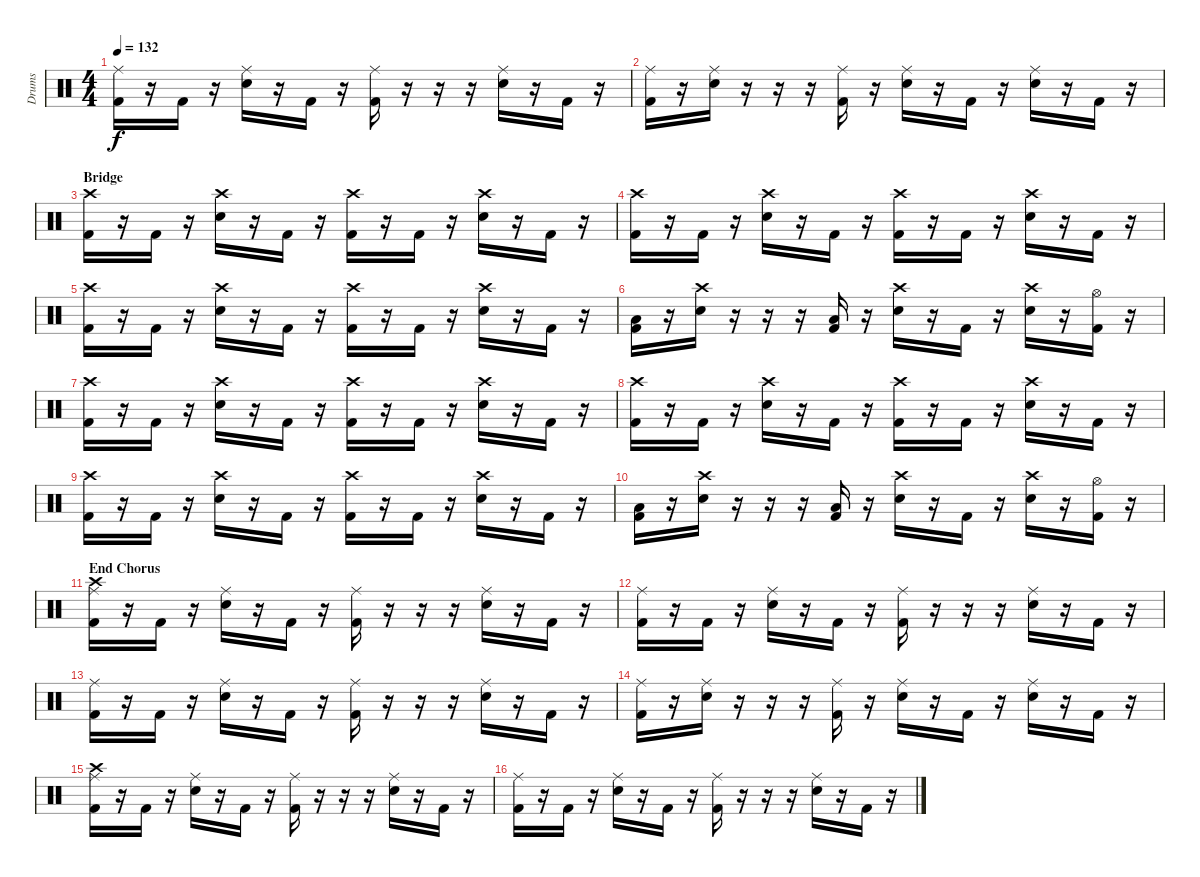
\track ("Drums" "Drums") {instrument percussion}
\staff {score}
\articulation defaults
\ts (4 4)
\tempo 132
\clef neutral
\ks c
("Ride (middle)" "Kick (hit) 2").16{dy f} r.16 "Kick (hit) 2".16 r.16 ("Ride (middle)" "Snare (hit) 2").16 r.16 "Kick (hit) 2".16 r.16 ("Ride (middle)" "Kick (hit) 2").16 r.16 r.16 r.16 ("Ride (middle)" "Snare (hit) 2").16 r.16 "Kick (hit) 2".16 r.16 |
("Ride (middle)" "Kick (hit) 2").16 r.16 ("Ride (middle)" "Snare (hit) 2").16 r.16 r.16 r.16 ("Ride (middle)" "Kick (hit) 2").16 r.16 ("Ride (middle)" "Snare (hit) 2").16 r.16 "Kick (hit) 2".16 r.16 ("Ride (middle)" "Snare (hit) 2").16 r.16 "Kick (hit) 2".16 r.16 |
\section ("" "Bridge")
("Crash high (hit)" "Kick (hit) 2").16 r.16 "Kick (hit) 2".16 r.16 ("Crash high (hit)" "Snare (hit) 2").16 r.16 "Kick (hit) 2".16 r.16 ("Crash high (hit)" "Kick (hit) 2").16 r.16 "Kick (hit) 2".16 r.16 ("Crash high (hit)" "Snare (hit) 2").16 r.16 "Kick (hit) 2".16 r.16 |
("Crash high (hit)" "Kick (hit) 2").16 r.16 "Kick (hit) 2".16 r.16 ("Crash high (hit)" "Snare (hit) 2").16 r.16 "Kick (hit) 2".16 r.16 ("Crash high (hit)" "Kick (hit) 2").16 r.16 "Kick (hit) 2".16 r.16 ("Crash high (hit)" "Snare (hit) 2").16 r.16 "Kick (hit) 2".16 r.16 |
("Crash high (hit)" "Kick (hit) 2").16 r.16 "Kick (hit) 2".16 r.16 ("Crash high (hit)" "Snare (hit) 2").16 r.16 "Kick (hit) 2".16 r.16 ("Crash high (hit)" "Kick (hit) 2").16 r.16 "Kick (hit) 2".16 r.16 ("Crash high (hit)" "Snare (hit) 2").16 r.16 "Kick (hit) 2".16 r.16 |
("Low Tom (hit)" "Kick (hit) 2").16 r.16 ("Crash high (hit)" "Snare (hit) 2").16 r.16 r.16 r.16 ("Low Tom (hit)" "Kick (hit) 2").16 r.16 ("Crash high (hit)" "Snare (hit) 2").16 r.16 "Kick (hit) 2".16 r.16 ("Crash high (hit)" "Snare (hit) 2").16 r.16 ("Hi-Hat (open)" "Kick (hit) 2").16 r.16 |
("Crash high (hit)" "Kick (hit) 2").16 r.16 "Kick (hit) 2".16 r.16 ("Crash high (hit)" "Snare (hit) 2").16 r.16 "Kick (hit) 2".16 r.16 ("Crash high (hit)" "Kick (hit) 2").16 r.16 "Kick (hit) 2".16 r.16 ("Crash high (hit)" "Snare (hit) 2").16 r.16 "Kick (hit) 2".16 r.16 |
("Crash high (hit)" "Kick (hit) 2").16 r.16 "Kick (hit) 2".16 r.16 ("Crash high (hit)" "Snare (hit) 2").16 r.16 "Kick (hit) 2".16 r.16 ("Crash high (hit)" "Kick (hit) 2").16 r.16 "Kick (hit) 2".16 r.16 ("Crash high (hit)" "Snare (hit) 2").16 r.16 "Kick (hit) 2".16 r.16 |
("Crash high (hit)" "Kick (hit) 2").16 r.16 "Kick (hit) 2".16 r.16 ("Crash high (hit)" "Snare (hit) 2").16 r.16 "Kick (hit) 2".16 r.16 ("Crash high (hit)" "Kick (hit) 2").16 r.16 "Kick (hit) 2".16 r.16 ("Crash high (hit)" "Snare (hit) 2").16 r.16 "Kick (hit) 2".16 r.16 |
("Low Tom (hit)" "Kick (hit) 2").16 r.16 ("Crash high (hit)" "Snare (hit) 2").16 r.16 r.16 r.16 ("Low Tom (hit)" "Kick (hit) 2").16 r.16 ("Crash high (hit)" "Snare (hit) 2").16 r.16 "Kick (hit) 2".16 r.16 ("Crash high (hit)" "Snare (hit) 2").16 r.16 ("Hi-Hat (open)" "Kick (hit) 2").16 r.16 |
\section ("" "End Chorus")
("Crash high (hit)" "Ride (middle)" "Kick (hit) 2").16 r.16 "Kick (hit) 2".16 r.16 ("Ride (middle)" "Snare (hit) 2").16 r.16 "Kick (hit) 2".16 r.16 ("Ride (middle)" "Kick (hit) 2").16 r.16 r.16 r.16 ("Ride (middle)" "Snare (hit) 2").16 r.16 "Kick (hit) 2".16 r.16 |
("Ride (middle)" "Kick (hit) 2").16 r.16 "Kick (hit) 2".16 r.16 ("Ride (middle)" "Snare (hit) 2").16 r.16 "Kick (hit) 2".16 r.16 ("Ride (middle)" "Kick (hit) 2").16 r.16 r.16 r.16 ("Ride (middle)" "Snare (hit) 2").16 r.16 "Kick (hit) 2".16 r.16 |
("Ride (middle)" "Kick (hit) 2").16 r.16 "Kick (hit) 2".16 r.16 ("Ride (middle)" "Snare (hit) 2").16 r.16 "Kick (hit) 2".16 r.16 ("Ride (middle)" "Kick (hit) 2").16 r.16 r.16 r.16 ("Ride (middle)" "Snare (hit) 2").16 r.16 "Kick (hit) 2".16 r.16 |
("Ride (middle)" "Kick (hit) 2").16 r.16 ("Ride (middle)" "Snare (hit) 2").16 r.16 r.16 r.16 ("Ride (middle)" "Kick (hit) 2").16 r.16 ("Ride (middle)" "Snare (hit) 2").16 r.16 "Kick (hit) 2".16 r.16 ("Ride (middle)" "Snare (hit) 2").16 r.16 "Kick (hit) 2".16 r.16 |
("Crash high (hit)" "Ride (middle)" "Kick (hit) 2").16 r.16 "Kick (hit) 2".16 r.16 ("Ride (middle)" "Snare (hit) 2").16 r.16 "Kick (hit) 2".16 r.16 ("Ride (middle)" "Kick (hit) 2").16 r.16 r.16 r.16 ("Ride (middle)" "Snare (hit) 2").16 r.16 "Kick (hit) 2".16 r.16 |
("Ride (middle)" "Kick (hit) 2").16 r.16 "Kick (hit) 2".16 r.16 ("Ride (middle)" "Snare (hit) 2").16 r.16 "Kick (hit) 2".16 r.16 ("Ride (middle)" "Kick (hit) 2").16 r.16 r.16 r.16 ("Ride (middle)" "Snare (hit) 2").16 r.16 "Kick (hit) 2".16 r.16
